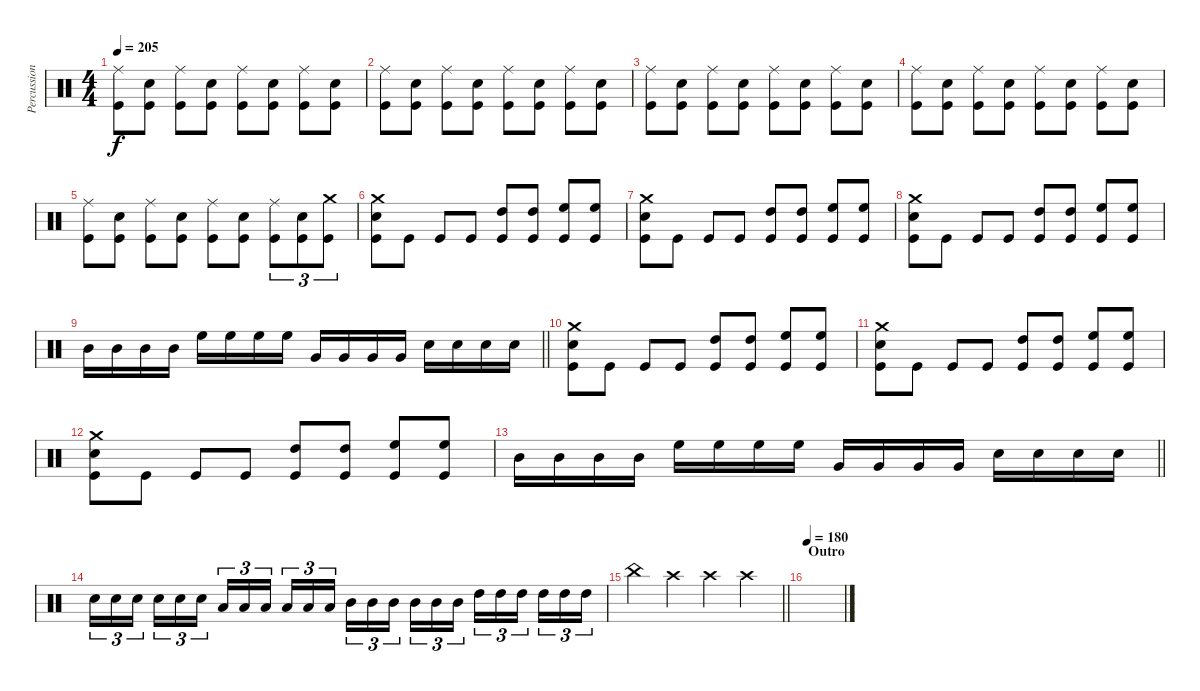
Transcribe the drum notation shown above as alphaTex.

\track ("Percussion" "Percussion") {instrument percussion}
\staff {score}
\articulation defaults
\ts (4 4)
\tempo 205
\clef neutral
\ks c
("Ride (middle)" "Kick (hit)").8{dy f} ("Electric Snare (hit)" "Kick (hit)").8 ("Ride (middle)" "Kick (hit)").8 ("Electric Snare (hit)" "Kick (hit)").8 ("Ride (middle)" "Kick (hit)").8 ("Electric Snare (hit)" "Kick (hit)").8 ("Ride (middle)" "Kick (hit)").8 ("Electric Snare (hit)" "Kick (hit)").8 |
("Ride (middle)" "Kick (hit)").8 ("Electric Snare (hit)" "Kick (hit)").8 ("Ride (middle)" "Kick (hit)").8 ("Electric Snare (hit)" "Kick (hit)").8 ("Ride (middle)" "Kick (hit)").8 ("Electric Snare (hit)" "Kick (hit)").8 ("Ride (middle)" "Kick (hit)").8 ("Electric Snare (hit)" "Kick (hit)").8 |
("Ride (middle)" "Kick (hit)").8 ("Electric Snare (hit)" "Kick (hit)").8 ("Ride (middle)" "Kick (hit)").8 ("Electric Snare (hit)" "Kick (hit)").8 ("Ride (middle)" "Kick (hit)").8 ("Electric Snare (hit)" "Kick (hit)").8 ("Ride (middle)" "Kick (hit)").8 ("Electric Snare (hit)" "Kick (hit)").8 |
("Ride (middle)" "Kick (hit)").8 ("Electric Snare (hit)" "Kick (hit)").8 ("Ride (middle)" "Kick (hit)").8 ("Electric Snare (hit)" "Kick (hit)").8 ("Ride (middle)" "Kick (hit)").8 ("Electric Snare (hit)" "Kick (hit)").8 ("Ride (middle)" "Kick (hit)").8 ("Electric Snare (hit)" "Kick (hit)").8 |
("Ride (middle)" "Kick (hit)").8 ("Electric Snare (hit)" "Kick (hit)").8 ("Ride (middle)" "Kick (hit)").8 ("Electric Snare (hit)" "Kick (hit)").8 ("Ride (middle)" "Kick (hit)").8 ("Electric Snare (hit)" "Kick (hit)").8 ("Ride (middle)" "Kick (hit)").8{tu (3 2)} ("Electric Snare (hit)" "Kick (hit)").8{tu (3 2)} ("Crash medium (hit)" "Kick (hit)").8{tu (3 2)} |
("Crash medium (hit)" "Electric Snare (hit)" "Kick (hit)").8 "Kick (hit)".8 "Kick (hit)".8 "Kick (hit)".8 ("High Tom (hit)" "Kick (hit)").8 ("High Tom (hit)" "Kick (hit)").8 ("High Floor Tom (hit)" "Kick (hit)").8 ("High Floor Tom (hit)" "Kick (hit)").8 |
("Crash medium (hit)" "Electric Snare (hit)" "Kick (hit)").8 "Kick (hit)".8 "Kick (hit)".8 "Kick (hit)".8 ("High Tom (hit)" "Kick (hit)").8 ("High Tom (hit)" "Kick (hit)").8 ("High Floor Tom (hit)" "Kick (hit)").8 ("High Floor Tom (hit)" "Kick (hit)").8 |
("Crash medium (hit)" "Electric Snare (hit)" "Kick (hit)").8 "Kick (hit)".8 "Kick (hit)".8 "Kick (hit)".8 ("High Tom (hit)" "Kick (hit)").8 ("High Tom (hit)" "Kick (hit)").8 ("High Floor Tom (hit)" "Kick (hit)").8 ("High Floor Tom (hit)" "Kick (hit)").8 |
\barLineRight lightlight "Mid Tom (hit)".16 "Mid Tom (hit)".16 "Mid Tom (hit)".16 "Mid Tom (hit)".16 "High Floor Tom (hit)".16 "High Floor Tom (hit)".16 "High Floor Tom (hit)".16 "High Floor Tom (hit)".16 "Very Low Tom (hit)".16 "Very Low Tom (hit)".16 "Very Low Tom (hit)".16 "Very Low Tom (hit)".16 "Electric Snare (hit)".16 "Electric Snare (hit)".16 "Electric Snare (hit)".16 "Electric Snare (hit)".16
|
("Crash medium (hit)" "Electric Snare (hit)" "Kick (hit)").8 "Kick (hit)".8 "Kick (hit)".8 "Kick (hit)".8 ("High Tom (hit)" "Kick (hit)").8 ("High Tom (hit)" "Kick (hit)").8 ("High Floor Tom (hit)" "Kick (hit)").8 ("High Floor Tom (hit)" "Kick (hit)").8 |
("Crash medium (hit)" "Electric Snare (hit)" "Kick (hit)").8 "Kick (hit)".8 "Kick (hit)".8 "Kick (hit)".8 ("High Tom (hit)" "Kick (hit)").8 ("High Tom (hit)" "Kick (hit)").8 ("High Floor Tom (hit)" "Kick (hit)").8 ("High Floor Tom (hit)" "Kick (hit)").8 |
("Crash medium (hit)" "Electric Snare (hit)" "Kick (hit)").8 "Kick (hit)".8 "Kick (hit)".8 "Kick (hit)".8 ("High Tom (hit)" "Kick (hit)").8 ("High Tom (hit)" "Kick (hit)").8 ("High Floor Tom (hit)" "Kick (hit)").8 ("High Floor Tom (hit)" "Kick (hit)").8 |
\barLineRight lightlight "Mid Tom (hit)".16 "Mid Tom (hit)".16 "Mid Tom (hit)".16 "Mid Tom (hit)".16 "High Floor Tom (hit)".16 "High Floor Tom (hit)".16 "High Floor Tom (hit)".16 "High Floor Tom (hit)".16 "Very Low Tom (hit)".16 "Very Low Tom (hit)".16 "Very Low Tom (hit)".16 "Very Low Tom (hit)".16 "Electric Snare (hit)".16 "Electric Snare (hit)".16 "Electric Snare (hit)".16 "Electric Snare (hit)".16
|
"Electric Snare (hit)".16{tu (3 2)} "Electric Snare (hit)".16{tu (3 2)} "Electric Snare (hit)".16{tu (3 2)} "Electric Snare (hit)".16{tu (3 2)} "Electric Snare (hit)".16{tu (3 2)} "Electric Snare (hit)".16{tu (3 2)} "Low Tom (hit)".16{tu (3 2)} "Low Tom (hit)".16{tu (3 2)} "Low Tom (hit)".16{tu (3 2)} "Low Tom (hit)".16{tu (3 2)} "Low Tom (hit)".16{tu (3 2)} "Low Tom (hit)".16{tu (3 2)} "Mid Tom (hit)".16{tu (3 2)} "Mid Tom (hit)".16{tu (3 2)} "Mid Tom (hit)".16{tu (3 2)} "Mid Tom (hit)".16{tu (3 2)} "Mid Tom (hit)".16{tu (3 2)} "Mid Tom (hit)".16{tu (3 2)} "High Tom (hit)".16{tu (3 2)} "High Tom (hit)".16{tu (3 2)} "High Tom (hit)".16{tu (3 2)} "High Tom (hit)".16{tu (3 2)} "High Tom (hit)".16{tu (3 2)} "High Tom (hit)".16{tu (3 2)} |
\barLineRight lightlight "China (hit)".4 "Crash high (hit)".4 "Crash high (hit)".4 "Crash high (hit)".4
|
\section ("" "Outro")
\tempo 180
